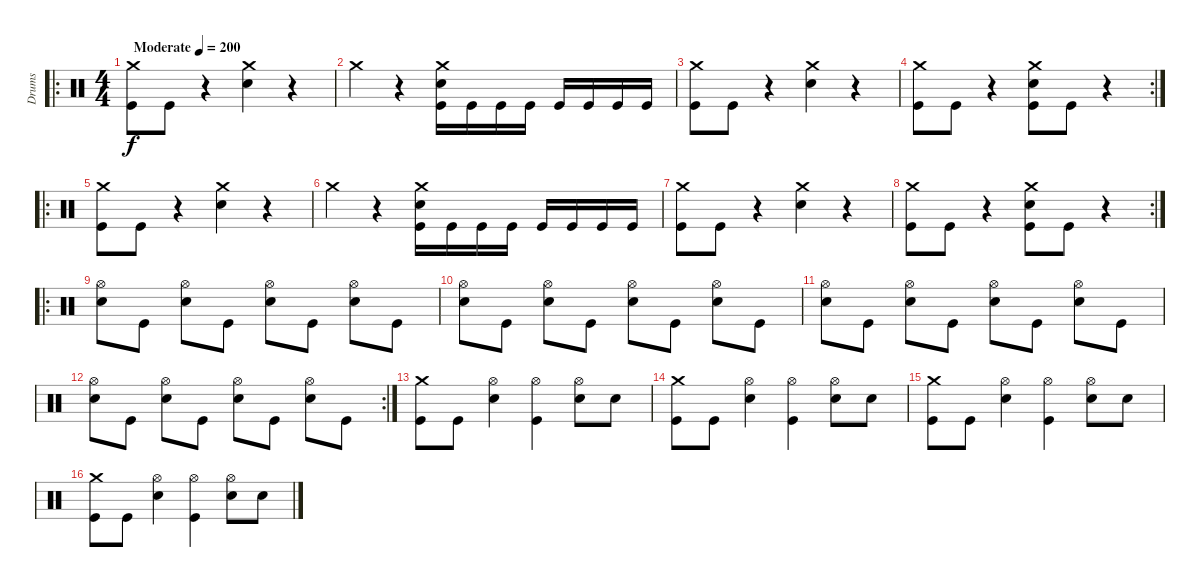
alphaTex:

\track ("Drums" "Drums") {instrument percussion}
\staff {score}
\articulation defaults
\ro
\ts (4 4)
\tempo (200 "Moderate")
\clef neutral
\ks c
("Crash medium (hit)" "Kick (hit)").8{dy f} "Kick (hit)".8 r.4 ("Crash medium (hit)" "Snare (hit) 2").4 r.4 |
"Crash medium (hit)".4 r.4 ("Crash medium (hit)" "Snare (hit) 2" "Kick (hit)").16 "Kick (hit)".16 "Kick (hit)".16 "Kick (hit)".16 "Kick (hit)".16 "Kick (hit)".16 "Kick (hit)".16 "Kick (hit)".16 |
("Crash medium (hit)" "Kick (hit)").8 "Kick (hit)".8 r.4 ("Crash medium (hit)" "Snare (hit) 2").4 r.4 |
\rc 2
("Crash medium (hit)" "Kick (hit)").8 "Kick (hit)".8 r.4 ("Crash medium (hit)" "Snare (hit) 2" "Kick (hit)").8 "Kick (hit)".8 r.4 |
\ro
("Crash medium (hit)" "Kick (hit)").8 "Kick (hit)".8 r.4 ("Crash medium (hit)" "Snare (hit) 2").4 r.4 |
"Crash medium (hit)".4 r.4 ("Crash medium (hit)" "Snare (hit) 2" "Kick (hit)").16 "Kick (hit)".16 "Kick (hit)".16 "Kick (hit)".16 "Kick (hit)".16 "Kick (hit)".16 "Kick (hit)".16 "Kick (hit)".16 |
("Crash medium (hit)" "Kick (hit)").8 "Kick (hit)".8 r.4 ("Crash medium (hit)" "Snare (hit) 2").4 r.4 |
\rc 2
("Crash medium (hit)" "Kick (hit)").8 "Kick (hit)".8 r.4 ("Crash medium (hit)" "Snare (hit) 2" "Kick (hit)").8 "Kick (hit)".8 r.4 |
\ro
("Hi-Hat (open)" "Snare (hit) 2").8 "Kick (hit)".8 ("Hi-Hat (open)" "Snare (hit) 2").8 "Kick (hit)".8 ("Hi-Hat (open)" "Snare (hit) 2").8 "Kick (hit)".8 ("Hi-Hat (open)" "Snare (hit) 2").8 "Kick (hit)".8 |
("Hi-Hat (open)" "Snare (hit) 2").8 "Kick (hit)".8 ("Hi-Hat (open)" "Snare (hit) 2").8 "Kick (hit)".8 ("Hi-Hat (open)" "Snare (hit) 2").8 "Kick (hit)".8 ("Hi-Hat (open)" "Snare (hit) 2").8 "Kick (hit)".8 |
("Hi-Hat (open)" "Snare (hit) 2").8 "Kick (hit)".8 ("Hi-Hat (open)" "Snare (hit) 2").8 "Kick (hit)".8 ("Hi-Hat (open)" "Snare (hit) 2").8 "Kick (hit)".8 ("Hi-Hat (open)" "Snare (hit) 2").8 "Kick (hit)".8 |
\rc 2
("Hi-Hat (open)" "Snare (hit) 2").8 "Kick (hit)".8 ("Hi-Hat (open)" "Snare (hit) 2").8 "Kick (hit)".8 ("Hi-Hat (open)" "Snare (hit) 2").8 "Kick (hit)".8 ("Hi-Hat (open)" "Snare (hit) 2").8 "Kick (hit)".8 |
("Crash medium (hit)" "Kick (hit)").8 "Kick (hit)".8 ("Hi-Hat (open)" "Snare (hit) 2").4 ("Hi-Hat (open)" "Kick (hit)").4 ("Hi-Hat (open)" "Snare (hit) 2").8 "Snare (hit) 2".8 |
("Crash medium (hit)" "Kick (hit)").8 "Kick (hit)".8 ("Hi-Hat (open)" "Snare (hit) 2").4 ("Hi-Hat (open)" "Kick (hit)").4 ("Hi-Hat (open)" "Snare (hit) 2").8 "Snare (hit) 2".8 |
("Crash medium (hit)" "Kick (hit)").8 "Kick (hit)".8 ("Hi-Hat (open)" "Snare (hit) 2").4 ("Hi-Hat (open)" "Kick (hit)").4 ("Hi-Hat (open)" "Snare (hit) 2").8 "Snare (hit) 2".8 |
("Crash medium (hit)" "Kick (hit)").8 "Kick (hit)".8 ("Hi-Hat (open)" "Snare (hit) 2").4 ("Hi-Hat (open)" "Kick (hit)").4 ("Hi-Hat (open)" "Snare (hit) 2").8 "Snare (hit) 2".8
